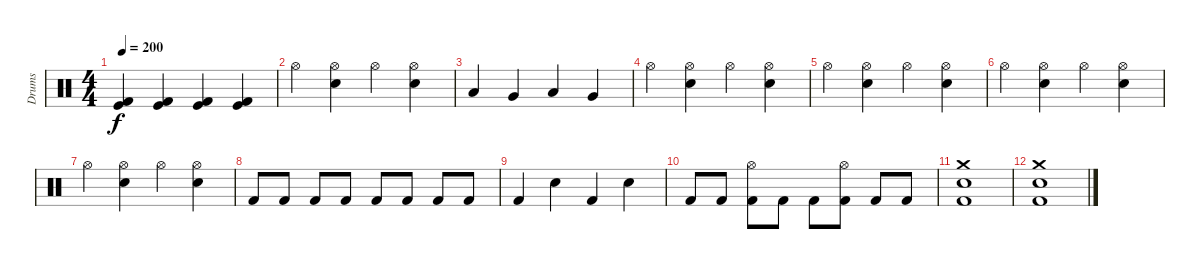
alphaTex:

\track ("Drums" "Drums") {instrument percussion}
\staff {score}
\articulation defaults
\ts (4 4)
\tempo 200
\clef neutral
\ks c
("Kick (hit)" "Kick (hit) 2").4{dy f} ("Kick (hit)" "Kick (hit) 2").4 ("Kick (hit)" "Kick (hit) 2").4 ("Kick (hit)" "Kick (hit) 2").4 |
"Hi-Hat (open)".4 ("Hi-Hat (open)" "Snare (hit) 2").4 "Hi-Hat (open)".4 ("Hi-Hat (open)" "Snare (hit) 2").4 |
"Low Floor Tom (hit)".4 "Very Low Tom (hit)".4 "Low Floor Tom (hit)".4 "Very Low Tom (hit)".4 |
"Hi-Hat (open)".4 ("Hi-Hat (open)" "Snare (hit) 2").4 "Hi-Hat (open)".4 ("Hi-Hat (open)" "Snare (hit) 2").4 |
"Hi-Hat (open)".4 ("Hi-Hat (open)" "Snare (hit) 2").4 "Hi-Hat (open)".4 ("Hi-Hat (open)" "Snare (hit) 2").4 |
"Hi-Hat (open)".4 ("Hi-Hat (open)" "Snare (hit) 2").4 "Hi-Hat (open)".4 ("Hi-Hat (open)" "Snare (hit) 2").4 |
"Hi-Hat (open)".4 ("Hi-Hat (open)" "Snare (hit) 2").4 "Hi-Hat (open)".4 ("Hi-Hat (open)" "Snare (hit) 2").4 |
"Kick (hit) 2".8 "Kick (hit) 2".8 "Kick (hit) 2".8 "Kick (hit) 2".8 "Kick (hit) 2".8 "Kick (hit) 2".8 "Kick (hit) 2".8 "Kick (hit) 2".8 |
"Kick (hit) 2".4 "Snare (hit) 2".4 "Kick (hit) 2".4 "Snare (hit) 2".4 |
"Kick (hit) 2".8 "Kick (hit) 2".8 ("Hi-Hat (open)" "Kick (hit) 2").8 "Kick (hit) 2".8 "Kick (hit) 2".8 ("Hi-Hat (open)" "Kick (hit) 2").8 "Kick (hit) 2".8 "Kick (hit) 2".8 |
("Crash medium (hit)" "Kick (hit) 2" "Snare (hit) 2").1 |
("Crash medium (hit)" "Kick (hit) 2" "Snare (hit) 2").1
